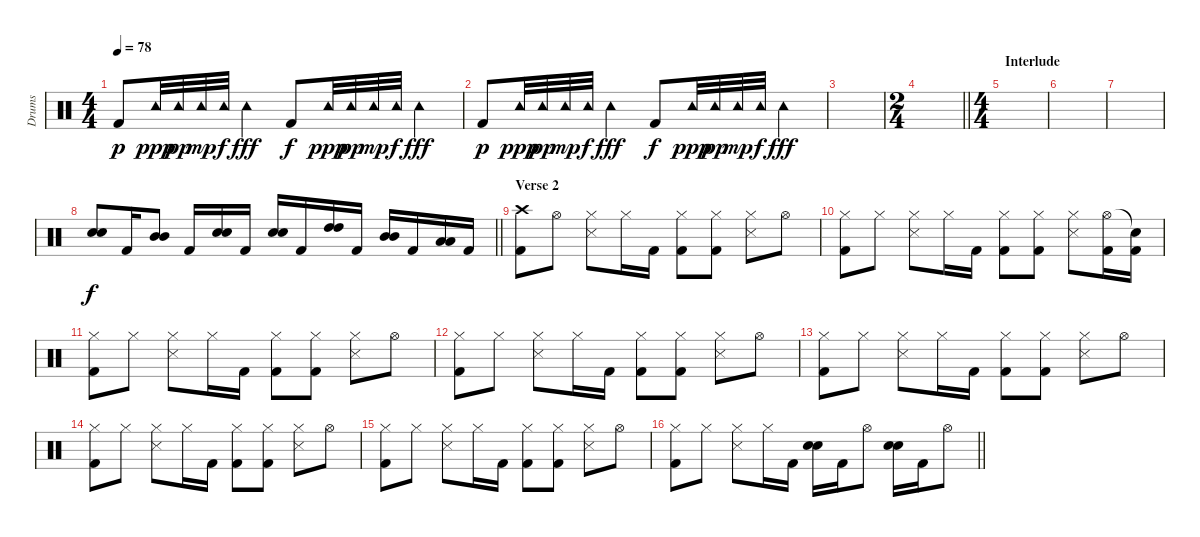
\track ("Drums" "Drums") {instrument percussion}
\staff {score}
\articulation defaults
\ts (4 4)
\tempo 78
\clef neutral
\ks c "Kick (hit) 2".8{dy p} "Tambourine (hit)".32{dy ppp} "Tambourine (hit)".32{dy pp} "Tambourine (hit)".32{dy mp} "Tambourine (hit)".32{dy f} "Tambourine (hit)".4{dy fff} "Kick (hit) 2".8{dy f} "Tambourine (hit)".32{dy ppp} "Tambourine (hit)".32{dy pp} "Tambourine (hit)".32{dy mp} "Tambourine (hit)".32{dy f} "Tambourine (hit)".4{dy fff}
|
"Kick (hit) 2".8{dy p} "Tambourine (hit)".32{dy ppp} "Tambourine (hit)".32{dy pp} "Tambourine (hit)".32{dy mp} "Tambourine (hit)".32{dy f} "Tambourine (hit)".4{dy fff} "Kick (hit) 2".8{dy f} "Tambourine (hit)".32{dy ppp} "Tambourine (hit)".32{dy pp} "Tambourine (hit)".32{dy mp} "Tambourine (hit)".32{dy f} "Tambourine (hit)".4{dy fff} |
|
\ts (2 4)
\barLineRight lightlight
|
\ts (4 4)
\section ("" "Interlude")
|
|
|
\barLineRight lightlight
("Electric Snare (hit)" "Electric Snare (hit)").8{bd 240 dy f} "Kick (hit) 2".16 ("Mid Tom (hit)" "Mid Tom (hit)").8{bd 240} "Kick (hit) 2".16 ("Electric Snare (hit)" "Electric Snare (hit)").16{bd 120} "Kick (hit) 2".16 ("Electric Snare (hit)" "Electric Snare (hit)").16{bd 120} "Kick (hit) 2".16 ("High Tom (hit)" "High Tom (hit)").16{bd 120} "Kick (hit) 2".16 ("Mid Tom (hit)" "Mid Tom (hit)").16{bd 120} "Kick (hit) 2".16 ("Low Tom (hit)" "Low Tom (hit)").16{bd 120} "Kick (hit) 2".16 |
\section ("" "Verse 2")
("Crash high (hit)" "Kick (hit) 2").8 "Hi-Hat (open)".8 ("Hi-Hat (closed)" "Snare (side stick) 3").8 "Hi-Hat (closed)".16 "Kick (hit) 2".16 ("Hi-Hat (closed)" "Kick (hit) 2").8 ("Hi-Hat (closed)" "Kick (hit) 2").8 ("Hi-Hat (closed)" "Snare (side stick) 3").8 "Hi-Hat (open)".8 |
("Hi-Hat (closed)" "Kick (hit) 2").8 "Hi-Hat (closed)".8 ("Hi-Hat (closed)" "Snare (side stick) 3").8 "Hi-Hat (closed)".16 "Kick (hit) 2".16 ("Hi-Hat (closed)" "Kick (hit) 2").8 ("Hi-Hat (closed)" "Kick (hit) 2").8 ("Hi-Hat (closed)" "Snare (side stick) 3").8 ("Hi-Hat (open)" "Kick (hit) 2").16 ("Snare (hit)"{t} "Kick (hit) 2").16 |
("Hi-Hat (closed)" "Kick (hit) 2").8 "Hi-Hat (closed)".8 ("Hi-Hat (closed)" "Snare (side stick) 3").8 "Hi-Hat (closed)".16 "Kick (hit) 2".16 ("Hi-Hat (closed)" "Kick (hit) 2").8 ("Hi-Hat (closed)" "Kick (hit) 2").8 ("Hi-Hat (closed)" "Snare (side stick) 3").8 "Hi-Hat (open)".8 |
("Hi-Hat (closed)" "Kick (hit) 2").8 "Hi-Hat (closed)".8 ("Hi-Hat (closed)" "Snare (side stick) 3").8 "Hi-Hat (closed)".16 "Kick (hit) 2".16 ("Hi-Hat (closed)" "Kick (hit) 2").8 ("Hi-Hat (closed)" "Kick (hit) 2").8 ("Hi-Hat (closed)" "Snare (side stick) 3").8 "Hi-Hat (open)".8 |
("Hi-Hat (closed)" "Kick (hit) 2").8 "Hi-Hat (closed)".8 ("Hi-Hat (closed)" "Snare (side stick) 3").8 "Hi-Hat (closed)".16 "Kick (hit) 2".16 ("Hi-Hat (closed)" "Kick (hit) 2").8 ("Hi-Hat (closed)" "Kick (hit) 2").8 ("Hi-Hat (closed)" "Snare (side stick) 3").8 "Hi-Hat (open)".8 |
("Hi-Hat (closed)" "Kick (hit) 2").8 "Hi-Hat (closed)".8 ("Hi-Hat (closed)" "Snare (side stick) 3").8 "Hi-Hat (closed)".16 "Kick (hit) 2".16 ("Hi-Hat (closed)" "Kick (hit) 2").8 ("Hi-Hat (closed)" "Kick (hit) 2").8 ("Hi-Hat (closed)" "Snare (side stick) 3").8 "Hi-Hat (open)".8 |
("Hi-Hat (closed)" "Kick (hit) 2").8 "Hi-Hat (closed)".8 ("Hi-Hat (closed)" "Snare (side stick) 3").8 "Hi-Hat (closed)".16 "Kick (hit) 2".16 ("Hi-Hat (closed)" "Kick (hit) 2").8 ("Hi-Hat (closed)" "Kick (hit) 2").8 ("Hi-Hat (closed)" "Snare (side stick) 3").8 "Hi-Hat (open)".8 |
\barLineRight lightlight
("Hi-Hat (closed)" "Kick (hit) 2").8 "Hi-Hat (closed)".8 ("Hi-Hat (closed)" "Snare (side stick) 3").8 "Hi-Hat (closed)".16 "Kick (hit) 2".16 ("Electric Snare (hit)" "Electric Snare (hit)").16{bu 120} "Kick (hit) 2".16 "Hi-Hat (open)".8 ("Electric Snare (hit)" "Electric Snare (hit)").16{bu 120} "Kick (hit) 2".16 "Hi-Hat (open)".8
